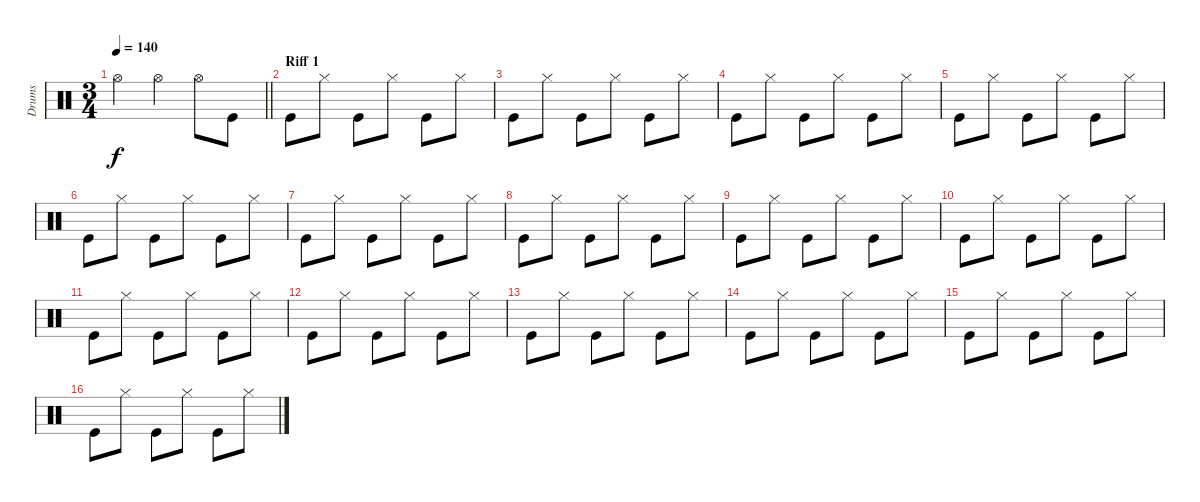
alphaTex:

\track ("Drums" "Drums") {instrument percussion}
\staff {score}
\articulation defaults
\ts (3 4)
\tempo 140
\clef neutral
\barLineRight lightlight
\ks c "Hi-Hat (open)".4{dy f} "Hi-Hat (open)".4 "Hi-Hat (open)".8 "Kick (hit)".8
|
\section ("" "Riff 1")
"Kick (hit)".8 "Hi-Hat (closed)".8 "Kick (hit)".8 "Hi-Hat (closed)".8 "Kick (hit)".8 "Hi-Hat (closed)".8 |
"Kick (hit)".8 "Hi-Hat (closed)".8 "Kick (hit)".8 "Hi-Hat (closed)".8 "Kick (hit)".8 "Hi-Hat (closed)".8 |
"Kick (hit)".8 "Hi-Hat (closed)".8 "Kick (hit)".8 "Hi-Hat (closed)".8 "Kick (hit)".8 "Hi-Hat (closed)".8 |
"Kick (hit)".8 "Hi-Hat (closed)".8 "Kick (hit)".8 "Hi-Hat (closed)".8 "Kick (hit)".8 "Hi-Hat (closed)".8 |
"Kick (hit)".8 "Hi-Hat (closed)".8 "Kick (hit)".8 "Hi-Hat (closed)".8 "Kick (hit)".8 "Hi-Hat (closed)".8 |
"Kick (hit)".8 "Hi-Hat (closed)".8 "Kick (hit)".8 "Hi-Hat (closed)".8 "Kick (hit)".8 "Hi-Hat (closed)".8 |
"Kick (hit)".8 "Hi-Hat (closed)".8 "Kick (hit)".8 "Hi-Hat (closed)".8 "Kick (hit)".8 "Hi-Hat (closed)".8 |
"Kick (hit)".8 "Hi-Hat (closed)".8 "Kick (hit)".8 "Hi-Hat (closed)".8 "Kick (hit)".8 "Hi-Hat (closed)".8 |
"Kick (hit)".8 "Hi-Hat (closed)".8 "Kick (hit)".8 "Hi-Hat (closed)".8 "Kick (hit)".8 "Hi-Hat (closed)".8 |
"Kick (hit)".8 "Hi-Hat (closed)".8 "Kick (hit)".8 "Hi-Hat (closed)".8 "Kick (hit)".8 "Hi-Hat (closed)".8 |
"Kick (hit)".8 "Hi-Hat (closed)".8 "Kick (hit)".8 "Hi-Hat (closed)".8 "Kick (hit)".8 "Hi-Hat (closed)".8 |
"Kick (hit)".8 "Hi-Hat (closed)".8 "Kick (hit)".8 "Hi-Hat (closed)".8 "Kick (hit)".8 "Hi-Hat (closed)".8 |
"Kick (hit)".8 "Hi-Hat (closed)".8 "Kick (hit)".8 "Hi-Hat (closed)".8 "Kick (hit)".8 "Hi-Hat (closed)".8 |
"Kick (hit)".8 "Hi-Hat (closed)".8 "Kick (hit)".8 "Hi-Hat (closed)".8 "Kick (hit)".8 "Hi-Hat (closed)".8 |
"Kick (hit)".8 "Hi-Hat (closed)".8 "Kick (hit)".8 "Hi-Hat (closed)".8 "Kick (hit)".8 "Hi-Hat (closed)".8
